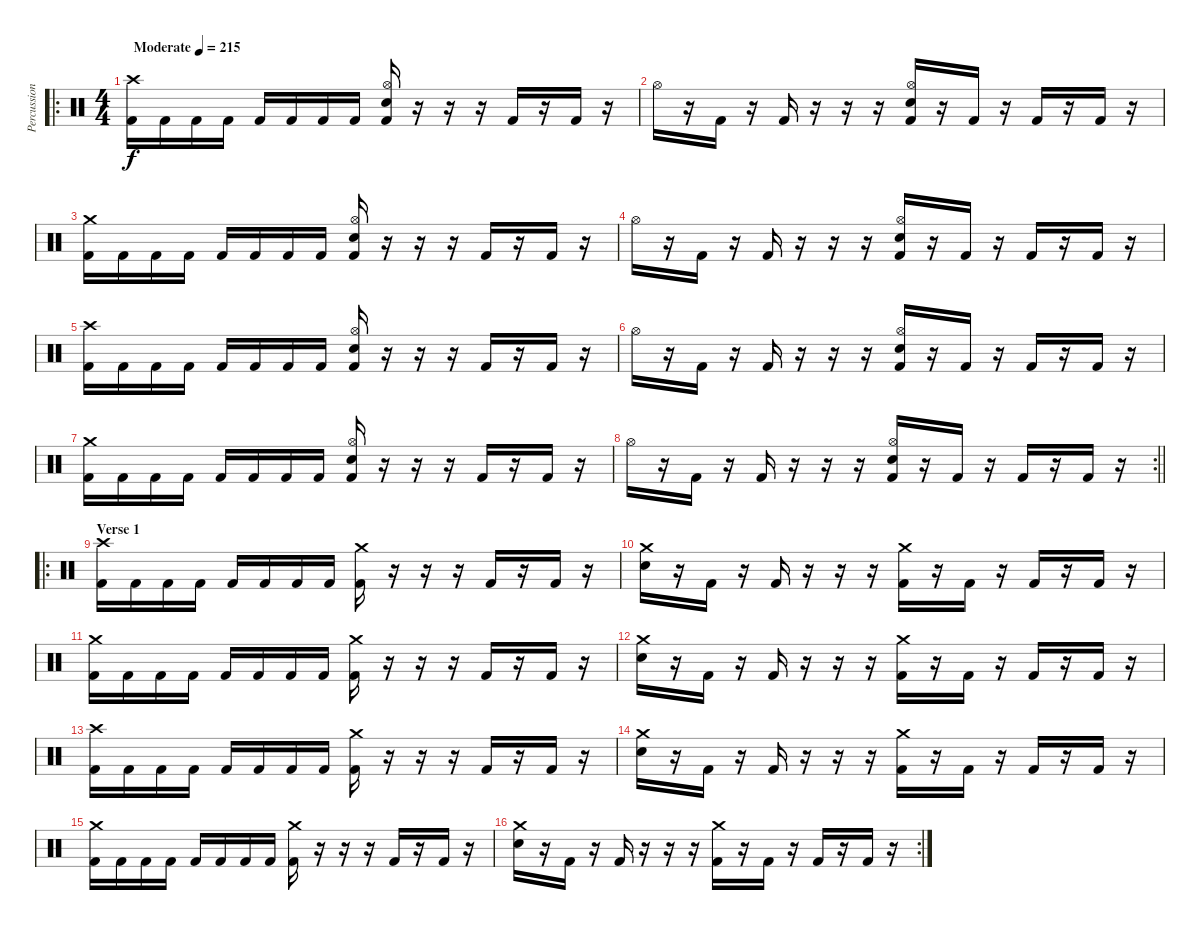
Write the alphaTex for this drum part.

\track ("Percussion" "Percussion") {instrument percussion}
\staff {score}
\articulation defaults
\ro
\ts (4 4)
\tempo (215 "Moderate")
\clef neutral
\ks c
("Crash high (hit)" "Kick (hit) 2").16{dy f} "Kick (hit) 2".16 "Kick (hit) 2".16 "Kick (hit) 2".16 "Kick (hit) 2".16 "Kick (hit) 2".16 "Kick (hit) 2".16 "Kick (hit) 2".16 ("Hi-Hat (open)" "Electric Snare (hit)" "Kick (hit) 2").16 r.16 r.16 r.16 "Kick (hit) 2".16 r.16 "Kick (hit) 2".16 r.16 |
"Hi-Hat (open)".16 r.16 "Kick (hit) 2".16 r.16 "Kick (hit) 2".16 r.16 r.16 r.16 ("Hi-Hat (open)" "Electric Snare (hit)" "Kick (hit) 2").16 r.16 "Kick (hit) 2".16 r.16 "Kick (hit) 2".16 r.16 "Kick (hit) 2".16 r.16 |
("Crash medium (hit)" "Kick (hit) 2").16 "Kick (hit) 2".16 "Kick (hit) 2".16 "Kick (hit) 2".16 "Kick (hit) 2".16 "Kick (hit) 2".16 "Kick (hit) 2".16 "Kick (hit) 2".16 ("Hi-Hat (open)" "Electric Snare (hit)" "Kick (hit) 2").16 r.16 r.16 r.16 "Kick (hit) 2".16 r.16 "Kick (hit) 2".16 r.16 |
"Hi-Hat (open)".16 r.16 "Kick (hit) 2".16 r.16 "Kick (hit) 2".16 r.16 r.16 r.16 ("Hi-Hat (open)" "Electric Snare (hit)" "Kick (hit) 2").16 r.16 "Kick (hit) 2".16 r.16 "Kick (hit) 2".16 r.16 "Kick (hit) 2".16 r.16 |
("Crash high (hit)" "Kick (hit) 2").16 "Kick (hit) 2".16 "Kick (hit) 2".16 "Kick (hit) 2".16 "Kick (hit) 2".16 "Kick (hit) 2".16 "Kick (hit) 2".16 "Kick (hit) 2".16 ("Hi-Hat (open)" "Electric Snare (hit)" "Kick (hit) 2").16 r.16 r.16 r.16 "Kick (hit) 2".16 r.16 "Kick (hit) 2".16 r.16 |
"Hi-Hat (open)".16 r.16 "Kick (hit) 2".16 r.16 "Kick (hit) 2".16 r.16 r.16 r.16 ("Hi-Hat (open)" "Electric Snare (hit)" "Kick (hit) 2").16 r.16 "Kick (hit) 2".16 r.16 "Kick (hit) 2".16 r.16 "Kick (hit) 2".16 r.16 |
("Crash medium (hit)" "Kick (hit) 2").16 "Kick (hit) 2".16 "Kick (hit) 2".16 "Kick (hit) 2".16 "Kick (hit) 2".16 "Kick (hit) 2".16 "Kick (hit) 2".16 "Kick (hit) 2".16 ("Hi-Hat (open)" "Electric Snare (hit)" "Kick (hit) 2").16 r.16 r.16 r.16 "Kick (hit) 2".16 r.16 "Kick (hit) 2".16 r.16 |
\rc 2
\barLineRight lightlight "Hi-Hat (open)".16
r.16 "Kick (hit) 2".16 r.16 "Kick (hit) 2".16 r.16 r.16 r.16 ("Hi-Hat (open)" "Electric Snare (hit)" "Kick (hit) 2").16 r.16 "Kick (hit) 2".16 r.16 "Kick (hit) 2".16 r.16 "Kick (hit) 2".16 r.16 |
\ro
\section ("" "Verse 1")
("Crash high (hit)" "Kick (hit) 2").16 "Kick (hit) 2".16 "Kick (hit) 2".16 "Kick (hit) 2".16 "Kick (hit) 2".16 "Kick (hit) 2".16 "Kick (hit) 2".16 "Kick (hit) 2".16 ("Crash medium (hit)" "Kick (hit) 2").16 r.16 r.16 r.16 "Kick (hit) 2".16 r.16 "Kick (hit) 2".16 r.16 |
("Crash medium (hit)" "Electric Snare (hit)").16 r.16 "Kick (hit) 2".16 r.16 "Kick (hit) 2".16 r.16 r.16 r.16 ("Crash medium (hit)" "Kick (hit) 2").16 r.16 "Kick (hit) 2".16 r.16 "Kick (hit) 2".16 r.16 "Kick (hit) 2".16 r.16 |
("Crash medium (hit)" "Kick (hit) 2").16 "Kick (hit) 2".16 "Kick (hit) 2".16 "Kick (hit) 2".16 "Kick (hit) 2".16 "Kick (hit) 2".16 "Kick (hit) 2".16 "Kick (hit) 2".16 ("Crash medium (hit)" "Kick (hit) 2").16 r.16 r.16 r.16 "Kick (hit) 2".16 r.16 "Kick (hit) 2".16 r.16 |
("Crash medium (hit)" "Electric Snare (hit)").16 r.16 "Kick (hit) 2".16 r.16 "Kick (hit) 2".16 r.16 r.16 r.16 ("Crash medium (hit)" "Kick (hit) 2").16 r.16 "Kick (hit) 2".16 r.16 "Kick (hit) 2".16 r.16 "Kick (hit) 2".16 r.16 |
("Crash high (hit)" "Kick (hit) 2").16 "Kick (hit) 2".16 "Kick (hit) 2".16 "Kick (hit) 2".16 "Kick (hit) 2".16 "Kick (hit) 2".16 "Kick (hit) 2".16 "Kick (hit) 2".16 ("Crash medium (hit)" "Kick (hit) 2").16 r.16 r.16 r.16 "Kick (hit) 2".16 r.16 "Kick (hit) 2".16 r.16 |
("Crash medium (hit)" "Electric Snare (hit)").16 r.16 "Kick (hit) 2".16 r.16 "Kick (hit) 2".16 r.16 r.16 r.16 ("Crash medium (hit)" "Kick (hit) 2").16 r.16 "Kick (hit) 2".16 r.16 "Kick (hit) 2".16 r.16 "Kick (hit) 2".16 r.16 |
("Crash medium (hit)" "Kick (hit) 2").16 "Kick (hit) 2".16 "Kick (hit) 2".16 "Kick (hit) 2".16 "Kick (hit) 2".16 "Kick (hit) 2".16 "Kick (hit) 2".16 "Kick (hit) 2".16 ("Crash medium (hit)" "Kick (hit) 2").16 r.16 r.16 r.16 "Kick (hit) 2".16 r.16 "Kick (hit) 2".16 r.16 |
\rc 2
("Crash medium (hit)" "Electric Snare (hit)").16 r.16 "Kick (hit) 2".16 r.16 "Kick (hit) 2".16 r.16 r.16 r.16 ("Crash medium (hit)" "Kick (hit) 2").16 r.16 "Kick (hit) 2".16 r.16 "Kick (hit) 2".16 r.16 "Kick (hit) 2".16 r.16
